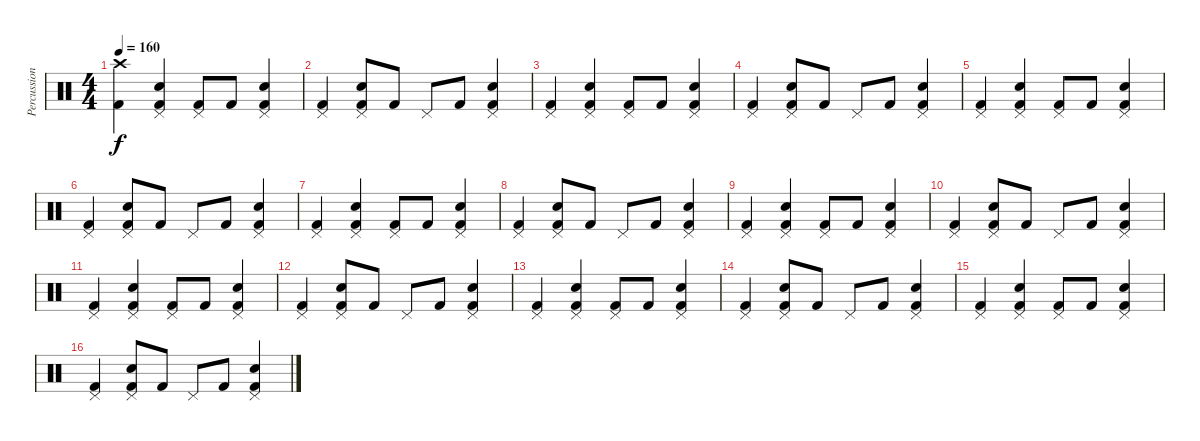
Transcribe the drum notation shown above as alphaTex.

\track ("Percussion" "Percussion") {instrument percussion}
\staff {score}
\articulation defaults
\ts (4 4)
\tempo 160
\clef neutral
\ks c
("Crash high (hit)" "Kick (hit) 2").4{dy f} ("Pedal Hi-Hat (hit)" "Snare (hit) 2" "Kick (hit) 2").4 ("Pedal Hi-Hat (hit)" "Kick (hit) 2").8 "Kick (hit) 2".8 ("Pedal Hi-Hat (hit)" "Snare (hit) 2" "Kick (hit) 2").4 |
("Pedal Hi-Hat (hit)" "Kick (hit) 2").4 ("Pedal Hi-Hat (hit)" "Snare (hit) 2" "Kick (hit) 2").8 "Kick (hit) 2".8 "Pedal Hi-Hat (hit)".8 "Kick (hit) 2".8 ("Pedal Hi-Hat (hit)" "Snare (hit) 2" "Kick (hit) 2").4 |
("Pedal Hi-Hat (hit)" "Kick (hit) 2").4 ("Pedal Hi-Hat (hit)" "Snare (hit) 2" "Kick (hit) 2").4 ("Pedal Hi-Hat (hit)" "Kick (hit) 2").8 "Kick (hit) 2".8 ("Pedal Hi-Hat (hit)" "Snare (hit) 2" "Kick (hit) 2").4 |
("Pedal Hi-Hat (hit)" "Kick (hit) 2").4 ("Pedal Hi-Hat (hit)" "Snare (hit) 2" "Kick (hit) 2").8 "Kick (hit) 2".8 "Pedal Hi-Hat (hit)".8 "Kick (hit) 2".8 ("Pedal Hi-Hat (hit)" "Snare (hit) 2" "Kick (hit) 2").4 |
("Pedal Hi-Hat (hit)" "Kick (hit) 2").4 ("Pedal Hi-Hat (hit)" "Snare (hit) 2" "Kick (hit) 2").4 ("Pedal Hi-Hat (hit)" "Kick (hit) 2").8 "Kick (hit) 2".8 ("Pedal Hi-Hat (hit)" "Snare (hit) 2" "Kick (hit) 2").4 |
("Pedal Hi-Hat (hit)" "Kick (hit) 2").4 ("Pedal Hi-Hat (hit)" "Snare (hit) 2" "Kick (hit) 2").8 "Kick (hit) 2".8 "Pedal Hi-Hat (hit)".8 "Kick (hit) 2".8 ("Pedal Hi-Hat (hit)" "Snare (hit) 2" "Kick (hit) 2").4 |
("Pedal Hi-Hat (hit)" "Kick (hit) 2").4 ("Pedal Hi-Hat (hit)" "Snare (hit) 2" "Kick (hit) 2").4 ("Pedal Hi-Hat (hit)" "Kick (hit) 2").8 "Kick (hit) 2".8 ("Pedal Hi-Hat (hit)" "Snare (hit) 2" "Kick (hit) 2").4 |
("Pedal Hi-Hat (hit)" "Kick (hit) 2").4 ("Pedal Hi-Hat (hit)" "Snare (hit) 2" "Kick (hit) 2").8 "Kick (hit) 2".8 "Pedal Hi-Hat (hit)".8 "Kick (hit) 2".8 ("Pedal Hi-Hat (hit)" "Snare (hit) 2" "Kick (hit) 2").4 |
("Pedal Hi-Hat (hit)" "Kick (hit) 2").4 ("Pedal Hi-Hat (hit)" "Snare (hit) 2" "Kick (hit) 2").4 ("Pedal Hi-Hat (hit)" "Kick (hit) 2").8 "Kick (hit) 2".8 ("Pedal Hi-Hat (hit)" "Snare (hit) 2" "Kick (hit) 2").4 |
("Pedal Hi-Hat (hit)" "Kick (hit) 2").4 ("Pedal Hi-Hat (hit)" "Snare (hit) 2" "Kick (hit) 2").8 "Kick (hit) 2".8 "Pedal Hi-Hat (hit)".8 "Kick (hit) 2".8 ("Pedal Hi-Hat (hit)" "Snare (hit) 2" "Kick (hit) 2").4 |
("Pedal Hi-Hat (hit)" "Kick (hit) 2").4 ("Pedal Hi-Hat (hit)" "Snare (hit) 2" "Kick (hit) 2").4 ("Pedal Hi-Hat (hit)" "Kick (hit) 2").8 "Kick (hit) 2".8 ("Pedal Hi-Hat (hit)" "Snare (hit) 2" "Kick (hit) 2").4 |
("Pedal Hi-Hat (hit)" "Kick (hit) 2").4 ("Pedal Hi-Hat (hit)" "Snare (hit) 2" "Kick (hit) 2").8 "Kick (hit) 2".8 "Pedal Hi-Hat (hit)".8 "Kick (hit) 2".8 ("Pedal Hi-Hat (hit)" "Snare (hit) 2" "Kick (hit) 2").4 |
("Pedal Hi-Hat (hit)" "Kick (hit) 2").4 ("Pedal Hi-Hat (hit)" "Snare (hit) 2" "Kick (hit) 2").4 ("Pedal Hi-Hat (hit)" "Kick (hit) 2").8 "Kick (hit) 2".8 ("Pedal Hi-Hat (hit)" "Snare (hit) 2" "Kick (hit) 2").4 |
("Pedal Hi-Hat (hit)" "Kick (hit) 2").4 ("Pedal Hi-Hat (hit)" "Snare (hit) 2" "Kick (hit) 2").8 "Kick (hit) 2".8 "Pedal Hi-Hat (hit)".8 "Kick (hit) 2".8 ("Pedal Hi-Hat (hit)" "Snare (hit) 2" "Kick (hit) 2").4 |
("Pedal Hi-Hat (hit)" "Kick (hit) 2").4 ("Pedal Hi-Hat (hit)" "Snare (hit) 2" "Kick (hit) 2").4 ("Pedal Hi-Hat (hit)" "Kick (hit) 2").8 "Kick (hit) 2".8 ("Pedal Hi-Hat (hit)" "Snare (hit) 2" "Kick (hit) 2").4 |
("Pedal Hi-Hat (hit)" "Kick (hit) 2").4 ("Pedal Hi-Hat (hit)" "Snare (hit) 2" "Kick (hit) 2").8 "Kick (hit) 2".8 "Pedal Hi-Hat (hit)".8 "Kick (hit) 2".8 ("Pedal Hi-Hat (hit)" "Snare (hit) 2" "Kick (hit) 2").4
